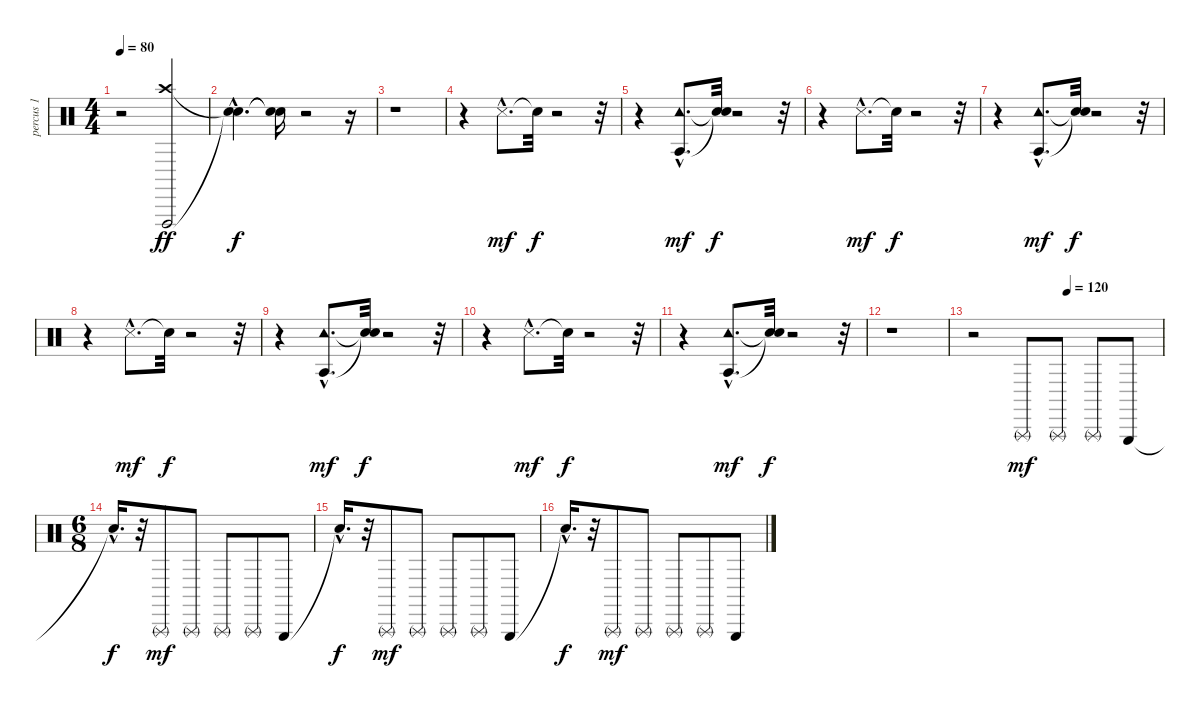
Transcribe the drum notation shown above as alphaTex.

\track ("percus 1" "percus 1") {instrument percussion}
\staff {score}
\articulation defaults
\ts (4 4)
\tempo 80
\clef neutral
\ks c
r.2{dy ff} ("Crash high (hit)" "Vibraslap (hit)").2 |
("Snare (hit)"{hac t} "Snare (hit)"{hac t}).4{d dy f} ("Snare (hit)"{t} "Snare (hit)"{t}).16 r.2 r.16 |
r.1 |
r.4 "Snare (side stick) 3"{hac}.8{d dy mf} "Snare (hit)"{t}.32{dy f} r.2 r.32 |
r.4 ("Tambourine (hit)"{hac} "Agogo tow (hit)"{hac}).8{d dy mf} ("Snare (hit)"{t} "Snare (hit)"{t}).32{dy f} r.2 r.32 |
r.4 "Snare (side stick) 3"{hac}.8{d dy mf} "Snare (hit)"{t}.32{dy f} r.2 r.32 |
r.4 ("Tambourine (hit)"{hac} "Agogo tow (hit)"{hac}).8{d dy mf} ("Snare (hit)"{t} "Snare (hit)"{t}).32{dy f} r.2 r.32 |
r.4 "Snare (side stick) 3"{hac}.8{d dy mf} "Snare (hit)"{t}.32{dy f} r.2 r.32 |
r.4 ("Tambourine (hit)"{hac} "Agogo tow (hit)"{hac}).8{d dy mf} ("Snare (hit)"{t} "Snare (hit)"{t}).32{dy f} r.2 r.32 |
r.4 "Snare (side stick) 3"{hac}.8{d dy mf} "Snare (hit)"{t}.32{dy f} r.2 r.32 |
r.4 ("Tambourine (hit)"{hac} "Agogo tow (hit)"{hac}).8{d dy mf} ("Snare (hit)"{t} "Snare (hit)"{t}).32{dy f} r.2 r.32 |
r.1 |
\tempo (120 0.5)
r.2 "Triangle (rnute)".8{dy mf} "Triangle (rnute)".8 "Triangle (rnute)".8 "Triangle (hit)".8 |
\ts (6 8)
"Snare (hit)"{hac t}.16{d dy f} r.32 "Triangle (rnute)".8{dy mf} "Triangle (rnute)".8 "Triangle (rnute)".8 "Triangle (rnute)".8 "Triangle (hit)".8 |
"Snare (hit)"{hac t}.16{d dy f} r.32 "Triangle (rnute)".8{dy mf} "Triangle (rnute)".8 "Triangle (rnute)".8 "Triangle (rnute)".8 "Triangle (hit)".8 |
"Snare (hit)"{hac t}.16{d dy f} r.32 "Triangle (rnute)".8{dy mf} "Triangle (rnute)".8 "Triangle (rnute)".8 "Triangle (rnute)".8 "Triangle (hit)".8
